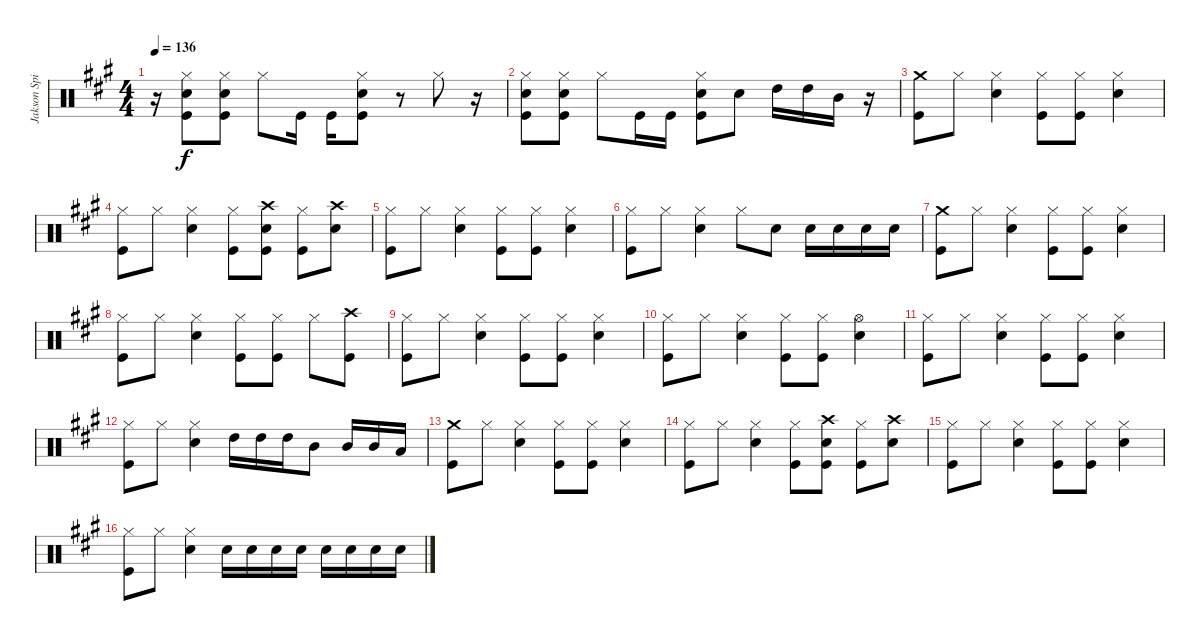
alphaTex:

\track ("Jakson Spires Drums" "Jakson Spi") {instrument percussion}
\staff {score}
\articulation defaults
\ts (4 4)
\tempo 136
\clef neutral
\ks a
r.16{dy f} ("Hi-Hat (closed)" "Snare (hit) 2" "Kick (hit)").8 ("Hi-Hat (closed)" "Snare (hit) 2" "Kick (hit)").8 "Hi-Hat (closed)".8 "Kick (hit)".16 "Kick (hit)".16 ("Hi-Hat (closed)" "Snare (hit) 2" "Kick (hit)").8 r.8 "Hi-Hat (closed)".8 r.16 |
("Hi-Hat (closed)" "Snare (hit) 2" "Kick (hit)").8 ("Hi-Hat (closed)" "Snare (hit) 2" "Kick (hit)").8 "Hi-Hat (closed)".8 "Kick (hit)".16 "Kick (hit)".16 ("Hi-Hat (closed)" "Snare (hit) 2" "Kick (hit)").8 "Snare (hit) 2".8 "High Tom (hit)".16 "High Tom (hit)".16 "Mid Tom (hit)".16 r.16 |
("Crash medium (hit)" "Kick (hit)").8 "Hi-Hat (closed)".8 ("Hi-Hat (closed)" "Snare (hit) 2").4 ("Hi-Hat (closed)" "Kick (hit)").8 ("Hi-Hat (closed)" "Kick (hit)").8 ("Hi-Hat (closed)" "Snare (hit) 2").4 |
("Hi-Hat (closed)" "Kick (hit)").8 "Hi-Hat (closed)".8 ("Hi-Hat (closed)" "Snare (hit) 2").4 ("Hi-Hat (closed)" "Kick (hit)").8 ("Crash high (hit)" "Snare (hit) 2" "Kick (hit)").8 ("Hi-Hat (closed)" "Kick (hit)").8 ("Crash high (hit)" "Snare (hit) 2").8 |
("Hi-Hat (closed)" "Kick (hit)").8 "Hi-Hat (closed)".8 ("Hi-Hat (closed)" "Snare (hit) 2").4 ("Hi-Hat (closed)" "Kick (hit)").8 ("Hi-Hat (closed)" "Kick (hit)").8 ("Hi-Hat (closed)" "Snare (hit) 2").4 |
("Hi-Hat (closed)" "Kick (hit)").8 "Hi-Hat (closed)".8 ("Hi-Hat (closed)" "Snare (hit) 2").4 "Hi-Hat (closed)".8 "Snare (hit) 2".8 "Snare (hit) 2".16 "Snare (hit) 2".16 "Snare (hit) 2".16 "Snare (hit) 2".16 |
("Crash medium (hit)" "Kick (hit)").8 "Hi-Hat (closed)".8 ("Hi-Hat (closed)" "Snare (hit) 2").4 ("Hi-Hat (closed)" "Kick (hit)").8 ("Hi-Hat (closed)" "Kick (hit)").8 ("Hi-Hat (closed)" "Snare (hit) 2").4 |
("Hi-Hat (closed)" "Kick (hit)").8 "Hi-Hat (closed)".8 ("Hi-Hat (closed)" "Snare (hit) 2").4 ("Hi-Hat (closed)" "Kick (hit)").8 ("Hi-Hat (closed)" "Kick (hit)").8 "Hi-Hat (closed)".8 ("Crash high (hit)" "Kick (hit)").8 |
("Hi-Hat (closed)" "Kick (hit)").8 "Hi-Hat (closed)".8 ("Hi-Hat (closed)" "Snare (hit) 2").4 ("Hi-Hat (closed)" "Kick (hit)").8 ("Hi-Hat (closed)" "Kick (hit)").8 ("Hi-Hat (closed)" "Snare (hit) 2").4 |
("Hi-Hat (closed)" "Kick (hit)").8 "Hi-Hat (closed)".8 ("Hi-Hat (closed)" "Snare (hit) 2").4 ("Hi-Hat (closed)" "Kick (hit)").8 ("Hi-Hat (closed)" "Kick (hit)").8 ("Hi-Hat (open)" "Snare (hit) 2").4 |
("Hi-Hat (closed)" "Kick (hit)").8 "Hi-Hat (closed)".8 ("Hi-Hat (closed)" "Snare (hit) 2").4 ("Hi-Hat (closed)" "Kick (hit)").8 ("Hi-Hat (closed)" "Kick (hit)").8 ("Hi-Hat (closed)" "Snare (hit) 2").4 |
("Hi-Hat (closed)" "Kick (hit)").8 "Hi-Hat (closed)".8 ("Hi-Hat (closed)" "Snare (hit) 2").4 "High Tom (hit)".16 "High Tom (hit)".16 "High Tom (hit)".16 "Mid Tom (hit)".8 "Mid Tom (hit)".16 "Mid Tom (hit)".16 "Low Tom (hit)".16 |
("Crash medium (hit)" "Kick (hit)").8 "Hi-Hat (closed)".8 ("Hi-Hat (closed)" "Snare (hit) 2").4 ("Hi-Hat (closed)" "Kick (hit)").8 ("Hi-Hat (closed)" "Kick (hit)").8 ("Hi-Hat (closed)" "Snare (hit) 2").4 |
("Hi-Hat (closed)" "Kick (hit)").8 "Hi-Hat (closed)".8 ("Hi-Hat (closed)" "Snare (hit) 2").4 ("Hi-Hat (closed)" "Kick (hit)").8 ("Crash high (hit)" "Snare (hit) 2" "Kick (hit)").8 ("Hi-Hat (closed)" "Kick (hit)").8 ("Crash high (hit)" "Snare (hit) 2").8 |
("Hi-Hat (closed)" "Kick (hit)").8 "Hi-Hat (closed)".8 ("Hi-Hat (closed)" "Snare (hit) 2").4 ("Hi-Hat (closed)" "Kick (hit)").8 ("Hi-Hat (closed)" "Kick (hit)").8 ("Hi-Hat (closed)" "Snare (hit) 2").4 |
("Hi-Hat (closed)" "Kick (hit)").8 "Hi-Hat (closed)".8 ("Hi-Hat (closed)" "Snare (hit) 2").4 "Snare (hit) 2".16 "Snare (hit) 2".16 "Snare (hit) 2".16 "Snare (hit) 2".16 "Snare (hit) 2".16 "Snare (hit) 2".16 "Snare (hit) 2".16 "Snare (hit) 2".16
